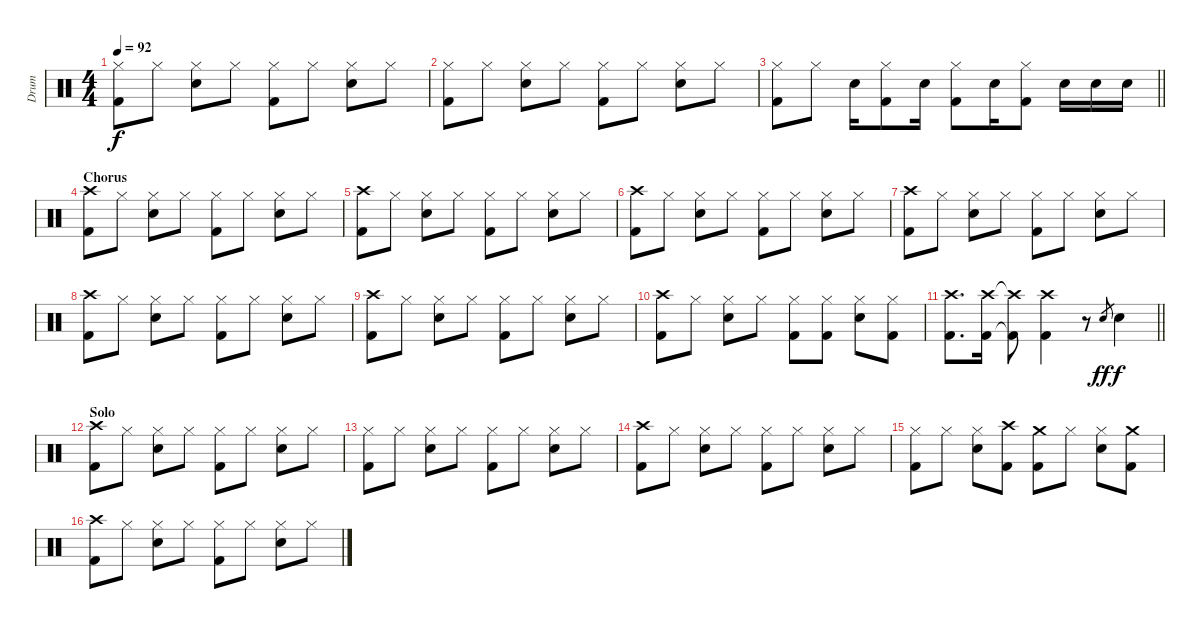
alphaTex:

\track ("Drum" "Drum") {instrument percussion}
\staff {score}
\articulation defaults
\ts (4 4)
\tempo 92
\clef neutral
\ks c
("Hi-Hat (closed)" "Kick (hit) 2").8{dy f} "Hi-Hat (closed)".8 ("Hi-Hat (closed)" "Snare (hit) 2").8 "Hi-Hat (closed)".8 ("Hi-Hat (closed)" "Kick (hit) 2").8 "Hi-Hat (closed)".8 ("Hi-Hat (closed)" "Snare (hit) 2").8 "Hi-Hat (closed)".8 |
("Hi-Hat (closed)" "Kick (hit) 2").8 "Hi-Hat (closed)".8 ("Hi-Hat (closed)" "Snare (hit) 2").8 "Hi-Hat (closed)".8 ("Hi-Hat (closed)" "Kick (hit) 2").8 "Hi-Hat (closed)".8 ("Hi-Hat (closed)" "Snare (hit) 2").8 "Hi-Hat (closed)".8 |
\barLineRight lightlight
("Hi-Hat (closed)" "Kick (hit) 2").8 "Hi-Hat (closed)".8 "Snare (hit) 2".16 ("Hi-Hat (closed)" "Kick (hit) 2").8 "Snare (hit) 2".16 ("Hi-Hat (closed)" "Kick (hit) 2").8 "Snare (hit) 2".16 ("Hi-Hat (closed)" "Kick (hit) 2").8 "Snare (hit) 2".16 "Snare (hit) 2".16 "Snare (hit) 2".16 |
\section ("" "Chorus")
("Crash high (hit)" "Kick (hit) 2").8 "Hi-Hat (closed)".8 ("Hi-Hat (closed)" "Snare (hit) 2").8 "Hi-Hat (closed)".8 ("Hi-Hat (closed)" "Kick (hit) 2").8 "Hi-Hat (closed)".8 ("Hi-Hat (closed)" "Snare (hit) 2").8 "Hi-Hat (closed)".8 |
("Crash high (hit)" "Kick (hit) 2").8 "Hi-Hat (closed)".8 ("Hi-Hat (closed)" "Snare (hit) 2").8 "Hi-Hat (closed)".8 ("Hi-Hat (closed)" "Kick (hit) 2").8 "Hi-Hat (closed)".8 ("Hi-Hat (closed)" "Snare (hit) 2").8 "Hi-Hat (closed)".8 |
("Crash high (hit)" "Kick (hit) 2").8 "Hi-Hat (closed)".8 ("Hi-Hat (closed)" "Snare (hit) 2").8 "Hi-Hat (closed)".8 ("Hi-Hat (closed)" "Kick (hit) 2").8 "Hi-Hat (closed)".8 ("Hi-Hat (closed)" "Snare (hit) 2").8 "Hi-Hat (closed)".8 |
("Crash high (hit)" "Kick (hit) 2").8 "Hi-Hat (closed)".8 ("Hi-Hat (closed)" "Snare (hit) 2").8 "Hi-Hat (closed)".8 ("Hi-Hat (closed)" "Kick (hit) 2").8 "Hi-Hat (closed)".8 ("Hi-Hat (closed)" "Snare (hit) 2").8 "Hi-Hat (closed)".8 |
("Crash high (hit)" "Kick (hit) 2").8 "Hi-Hat (closed)".8 ("Hi-Hat (closed)" "Snare (hit) 2").8 "Hi-Hat (closed)".8 ("Hi-Hat (closed)" "Kick (hit) 2").8 "Hi-Hat (closed)".8 ("Hi-Hat (closed)" "Snare (hit) 2").8 "Hi-Hat (closed)".8 |
("Crash high (hit)" "Kick (hit) 2").8 "Hi-Hat (closed)".8 ("Hi-Hat (closed)" "Snare (hit) 2").8 "Hi-Hat (closed)".8 ("Hi-Hat (closed)" "Kick (hit) 2").8 "Hi-Hat (closed)".8 ("Hi-Hat (closed)" "Snare (hit) 2").8 "Hi-Hat (closed)".8 |
("Crash high (hit)" "Kick (hit) 2").8 "Hi-Hat (closed)".8 ("Hi-Hat (closed)" "Snare (hit) 2").8 "Hi-Hat (closed)".8 ("Hi-Hat (closed)" "Kick (hit) 2").8 ("Hi-Hat (closed)" "Kick (hit) 2").8 ("Hi-Hat (closed)" "Snare (hit) 2").8 ("Hi-Hat (closed)" "Kick (hit) 2").8 |
\barLineRight lightlight
("Crash high (hit)" "Kick (hit) 2").8{d} ("Crash high (hit)" "Kick (hit) 2").16 ("Crash high (hit)"{t} "Kick (hit) 2"{t}).8 ("Crash high (hit)" "Kick (hit) 2").4 r.8 "Snare (hit) 2".8{gr dy ff} "Snare (hit) 2".4{dy f} |
\section ("" "Solo")
("Crash high (hit)" "Kick (hit) 2").8 "Hi-Hat (closed)".8 ("Hi-Hat (closed)" "Snare (hit) 2").8 "Hi-Hat (closed)".8 ("Hi-Hat (closed)" "Kick (hit) 2").8 "Hi-Hat (closed)".8 ("Hi-Hat (closed)" "Snare (hit) 2").8 "Hi-Hat (closed)".8 |
("Hi-Hat (closed)" "Kick (hit) 2").8 "Hi-Hat (closed)".8 ("Hi-Hat (closed)" "Snare (hit) 2").8 "Hi-Hat (closed)".8 ("Hi-Hat (closed)" "Kick (hit) 2").8 "Hi-Hat (closed)".8 ("Hi-Hat (closed)" "Snare (hit) 2").8 "Hi-Hat (closed)".8 |
("Crash high (hit)" "Kick (hit) 2").8 "Hi-Hat (closed)".8 ("Hi-Hat (closed)" "Snare (hit) 2").8 "Hi-Hat (closed)".8 ("Hi-Hat (closed)" "Kick (hit) 2").8 "Hi-Hat (closed)".8 ("Hi-Hat (closed)" "Snare (hit) 2").8 "Hi-Hat (closed)".8 |
("Hi-Hat (closed)" "Kick (hit) 2").8 "Hi-Hat (closed)".8 ("Hi-Hat (closed)" "Snare (hit) 2").8 ("Crash high (hit)" "Kick (hit) 2").8 ("Crash medium (hit)" "Kick (hit) 2").8 "Hi-Hat (closed)".8 ("Hi-Hat (closed)" "Snare (hit) 2").8 ("Crash medium (hit)" "Kick (hit) 2").8 |
("Crash high (hit)" "Kick (hit) 2").8 "Hi-Hat (closed)".8 ("Hi-Hat (closed)" "Snare (hit) 2").8 "Hi-Hat (closed)".8 ("Hi-Hat (closed)" "Kick (hit) 2").8 "Hi-Hat (closed)".8 ("Hi-Hat (closed)" "Snare (hit) 2").8 "Hi-Hat (closed)".8
